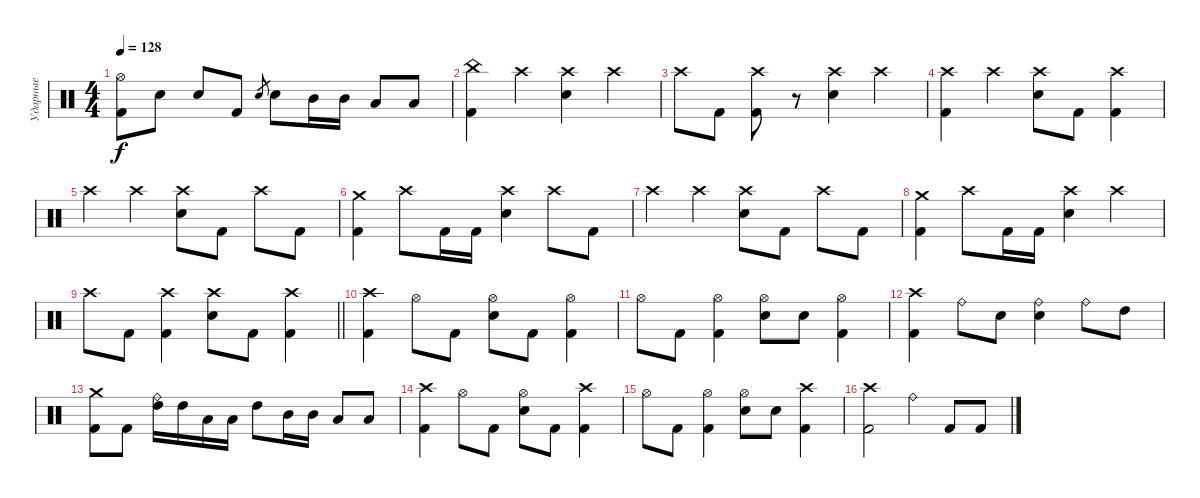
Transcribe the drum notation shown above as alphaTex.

\track ("Ударные" "Ударные") {instrument percussion}
\staff {score}
\articulation defaults
\ts (4 4)
\tempo 128
\clef neutral
\ks c
("Hi-Hat (open)" "Kick (hit) 2").8{dy f} "Snare (hit) 2".8 "Snare (hit) 2".8 "Kick (hit) 2".8 "Snare (hit) 2".8{gr} "Snare (hit) 2".8 "Mid Tom (hit)".16 "Mid Tom (hit)".16 "Low Tom (hit)".8 "Low Tom (hit)".8 |
("China (hit)" "Kick (hit) 2").4 "Crash high (hit)".4 ("Crash high (hit)" "Snare (hit) 2").4 "Crash high (hit)".4 |
"Crash high (hit)".8 "Kick (hit) 2".8 ("Crash high (hit)" "Kick (hit) 2").8 r.8 ("Crash high (hit)" "Snare (hit) 2").4 "Crash high (hit)".4 |
("Crash high (hit)" "Kick (hit) 2").4 "Crash high (hit)".4 ("Crash high (hit)" "Snare (hit) 2").8 "Kick (hit) 2".8 ("Crash high (hit)" "Kick (hit) 2").4 |
"Crash high (hit)".4 "Crash high (hit)".4 ("Crash high (hit)" "Snare (hit) 2").8 "Kick (hit) 2".8 "Crash high (hit)".8 "Kick (hit) 2".8 |
("Crash medium (hit)" "Kick (hit) 2").4 "Crash high (hit)".8 "Kick (hit) 2".16 "Kick (hit) 2".16 ("Crash high (hit)" "Snare (hit) 2").4 "Crash high (hit)".8 "Kick (hit) 2".8 |
"Crash high (hit)".4 "Crash high (hit)".4 ("Crash high (hit)" "Snare (hit) 2").8 "Kick (hit) 2".8 "Crash high (hit)".8 "Kick (hit) 2".8 |
("Crash medium (hit)" "Kick (hit) 2").4 "Crash high (hit)".8 "Kick (hit) 2".16 "Kick (hit) 2".16 ("Crash high (hit)" "Snare (hit) 2").4 "Crash high (hit)".4 |
\barLineRight lightlight "Crash high (hit)".8 "Kick (hit) 2".8
("Crash high (hit)" "Kick (hit) 2").4 ("Crash high (hit)" "Snare (hit) 2").8 "Kick (hit) 2".8 ("Crash high (hit)" "Kick (hit) 2").4 |
\section ("" "___")
("Crash high (hit)" "Kick (hit) 2").4 "Hi-Hat (open)".8 "Kick (hit) 2".8 ("Hi-Hat (open)" "Snare (hit) 2").8 "Kick (hit) 2".8 ("Hi-Hat (open)" "Kick (hit) 2").4 |
"Hi-Hat (open)".8 "Kick (hit) 2".8 ("Hi-Hat (open)" "Kick (hit) 2").4 ("Hi-Hat (open)" "Snare (hit) 2").8 "Snare (hit) 2".8 ("Hi-Hat (open)" "Kick (hit) 2").4 |
("Crash high (hit)" "Kick (hit) 2").4 "Ride (bell)".8 "Snare (hit) 2".8 ("Ride (bell)" "Snare (hit) 2").4 "Ride (bell)".8 "High Tom (hit)".8 |
("Crash medium (hit)" "Kick (hit) 2").8 "Kick (hit) 2".8 ("Ride (bell)" "High Tom (hit)").16 "High Tom (hit)".16 "Low Tom (hit)".16 "Low Tom (hit)".16 "High Tom (hit)".8 "Mid Tom (hit)".16 "Mid Tom (hit)".16 "Low Tom (hit)".8 "Low Tom (hit)".8 |
("Crash high (hit)" "Kick (hit) 2").4 "Hi-Hat (open)".8 "Kick (hit) 2".8 ("Hi-Hat (open)" "Snare (hit) 2").8 "Kick (hit) 2".8 ("Crash high (hit)" "Kick (hit) 2").4 |
"Hi-Hat (open)".8 "Kick (hit) 2".8 ("Hi-Hat (open)" "Kick (hit) 2").4 ("Hi-Hat (open)" "Snare (hit) 2").8 "Snare (hit) 2".8 ("Crash high (hit)" "Kick (hit) 2").4 |
("Crash high (hit)" "Kick (hit) 2").2 "Ride (bell)".4 "Kick (hit) 2".8 "Kick (hit) 2".8
